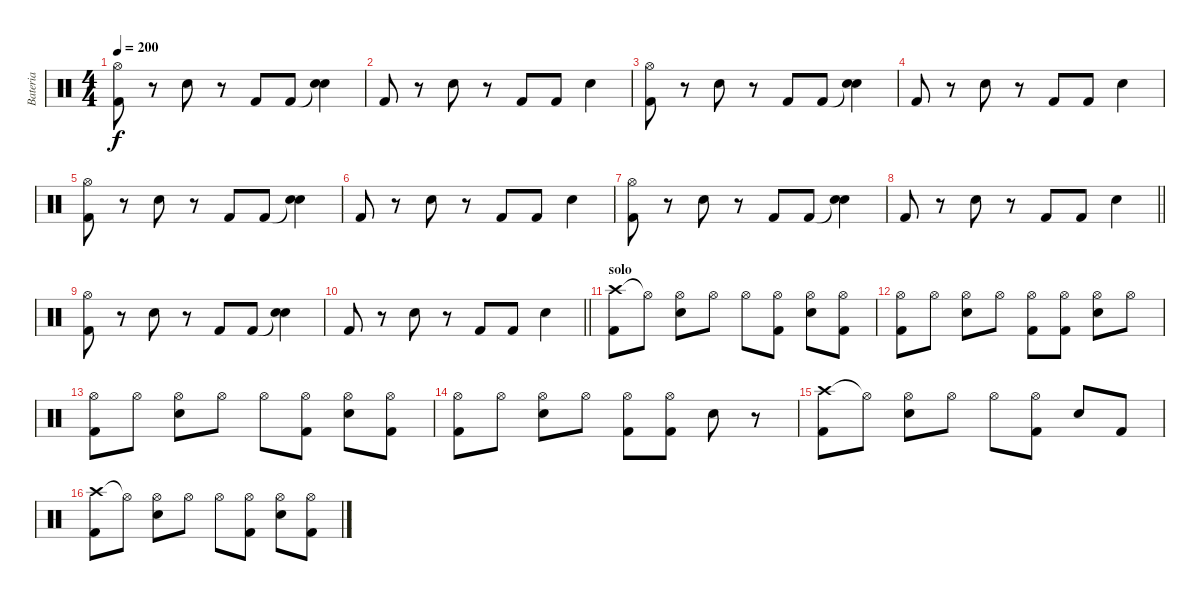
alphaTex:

\track ("Bateria" "Bateria") {instrument percussion}
\staff {score}
\articulation defaults
\ts (4 4)
\tempo 200
\clef neutral
\ks c
("Hi-Hat (open)" "Kick (hit) 2").8{dy f} r.8 "Snare (hit) 2".8 r.8 "Kick (hit) 2".8 "Kick (hit) 2".8 ("Snare (hit)"{t} "Snare (hit) 2").4 |
"Kick (hit) 2".8 r.8 "Snare (hit) 2".8 r.8 "Kick (hit) 2".8 "Kick (hit) 2".8 "Snare (hit) 2".4 |
("Hi-Hat (open)" "Kick (hit) 2").8 r.8 "Snare (hit) 2".8 r.8 "Kick (hit) 2".8 "Kick (hit) 2".8 ("Snare (hit)"{t} "Snare (hit) 2").4 |
"Kick (hit) 2".8 r.8 "Snare (hit) 2".8 r.8 "Kick (hit) 2".8 "Kick (hit) 2".8 "Snare (hit) 2".4 |
("Hi-Hat (open)" "Kick (hit) 2").8 r.8 "Snare (hit) 2".8 r.8 "Kick (hit) 2".8 "Kick (hit) 2".8 ("Snare (hit)"{t} "Snare (hit) 2").4 |
"Kick (hit) 2".8 r.8 "Snare (hit) 2".8 r.8 "Kick (hit) 2".8 "Kick (hit) 2".8 "Snare (hit) 2".4 |
("Hi-Hat (open)" "Kick (hit) 2").8 r.8 "Snare (hit) 2".8 r.8 "Kick (hit) 2".8 "Kick (hit) 2".8 ("Snare (hit)"{t} "Snare (hit) 2").4 |
\barLineRight lightlight "Kick (hit) 2".8
r.8 "Snare (hit) 2".8 r.8 "Kick (hit) 2".8 "Kick (hit) 2".8 "Snare (hit) 2".4 |
("Hi-Hat (open)" "Kick (hit) 2").8 r.8 "Snare (hit) 2".8 r.8 "Kick (hit) 2".8 "Kick (hit) 2".8 ("Snare (hit)"{t} "Snare (hit) 2").4 |
\barLineRight lightlight "Kick (hit) 2".8
r.8 "Snare (hit) 2".8 r.8 "Kick (hit) 2".8 "Kick (hit) 2".8 "Snare (hit) 2".4 |
\section ("" "solo")
("Crash high (hit)" "Kick (hit) 2").8{volume 13} "Hi-Hat (open)"{t}.8 ("Hi-Hat (open)" "Snare (hit) 2").8 "Hi-Hat (open)".8 "Hi-Hat (open)".8 ("Hi-Hat (open)" "Kick (hit) 2").8 ("Hi-Hat (open)" "Snare (hit) 2").8 ("Hi-Hat (open)" "Kick (hit) 2").8 |
("Hi-Hat (open)" "Kick (hit) 2").8 "Hi-Hat (open)".8 ("Hi-Hat (open)" "Snare (hit) 2").8 "Hi-Hat (open)".8 ("Hi-Hat (open)" "Kick (hit) 2").8 ("Hi-Hat (open)" "Kick (hit) 2").8 ("Hi-Hat (open)" "Snare (hit) 2").8 "Hi-Hat (open)".8 |
("Hi-Hat (open)" "Kick (hit) 2").8 "Hi-Hat (open)".8 ("Hi-Hat (open)" "Snare (hit) 2").8 "Hi-Hat (open)".8 "Hi-Hat (open)".8 ("Hi-Hat (open)" "Kick (hit) 2").8 ("Hi-Hat (open)" "Snare (hit) 2").8 ("Hi-Hat (open)" "Kick (hit) 2").8 |
("Hi-Hat (open)" "Kick (hit) 2").8 "Hi-Hat (open)".8 ("Hi-Hat (open)" "Snare (hit) 2").8 "Hi-Hat (open)".8 ("Hi-Hat (open)" "Kick (hit) 2").8 ("Hi-Hat (open)" "Kick (hit) 2").8 "Snare (hit) 2".8 r.8 |
("Crash high (hit)" "Kick (hit) 2").8 "Hi-Hat (open)"{t}.8 ("Hi-Hat (open)" "Snare (hit) 2").8 "Hi-Hat (open)".8 "Hi-Hat (open)".8 ("Hi-Hat (open)" "Kick (hit) 2").8 "Snare (hit) 2".8 "Kick (hit) 2".8 |
("Crash high (hit)" "Kick (hit) 2").8{volume 13} "Hi-Hat (open)"{t}.8 ("Hi-Hat (open)" "Snare (hit) 2").8 "Hi-Hat (open)".8 "Hi-Hat (open)".8 ("Hi-Hat (open)" "Kick (hit) 2").8 ("Hi-Hat (open)" "Snare (hit) 2").8 ("Hi-Hat (open)" "Kick (hit) 2").8
